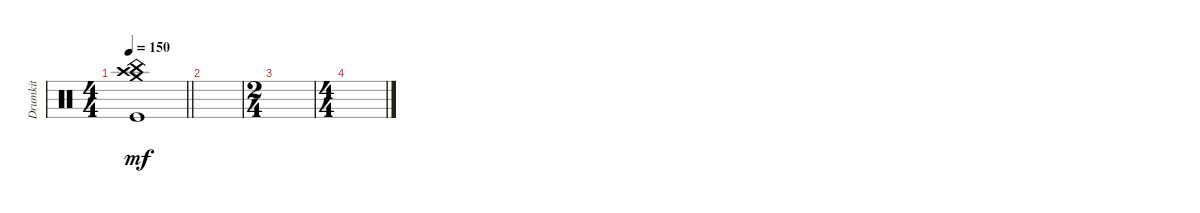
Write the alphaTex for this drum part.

\track ("Drumkit" "Drumkit") {instrument percussion}
\staff {score}
\articulation defaults
\ts (4 4)
\tempo 150
\clef neutral
\barLineRight lightlight
\ks c
("Kick (hit)" "Crash medium (hit)" "Crash high (hit)" "China (hit)").1{dy mf} |
|
\ts (2 4)
|
\ts (4 4)
